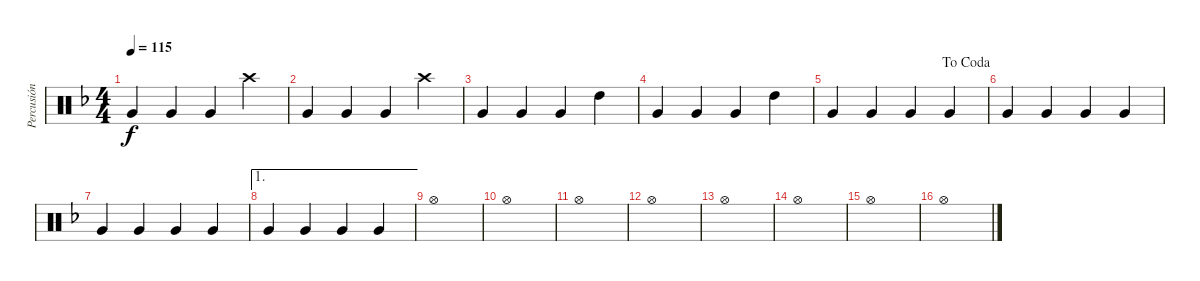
\track ("Percusión" "Percusión") {instrument percussion}
\staff {score}
\articulation defaults
\ts (4 4)
\tempo 115
\clef neutral
\ks dminor "Very Low Tom (hit)".4{dy f} "Very Low Tom (hit)".4 "Very Low Tom (hit)".4 "Crash high (hit)".4
|
"Very Low Tom (hit)".4 "Very Low Tom (hit)".4 "Very Low Tom (hit)".4 "Crash high (hit)".4 |
"Very Low Tom (hit)".4 "Very Low Tom (hit)".4 "Very Low Tom (hit)".4 "High Tom (hit)".4 |
"Very Low Tom (hit)".4 "Very Low Tom (hit)".4 "Very Low Tom (hit)".4 "High Tom (hit)".4 |
\jump dacoda "Very Low Tom (hit)".4 "Very Low Tom (hit)".4 "Very Low Tom (hit)".4 "Very Low Tom (hit)".4
|
"Very Low Tom (hit)".4 "Very Low Tom (hit)".4 "Very Low Tom (hit)".4 "Very Low Tom (hit)".4 |
"Very Low Tom (hit)".4 "Very Low Tom (hit)".4 "Very Low Tom (hit)".4 "Very Low Tom (hit)".4 |
\ae 1 "Very Low Tom (hit)".4 "Very Low Tom (hit)".4 "Very Low Tom (hit)".4 "Very Low Tom (hit)".4
|
"Hi-Hat (open)".1 |
"Hi-Hat (open)".1 |
"Hi-Hat (open)".1 |
"Hi-Hat (open)".1 |
"Hi-Hat (open)".1 |
"Hi-Hat (open)".1 |
"Hi-Hat (open)".1 |
"Hi-Hat (open)".1
